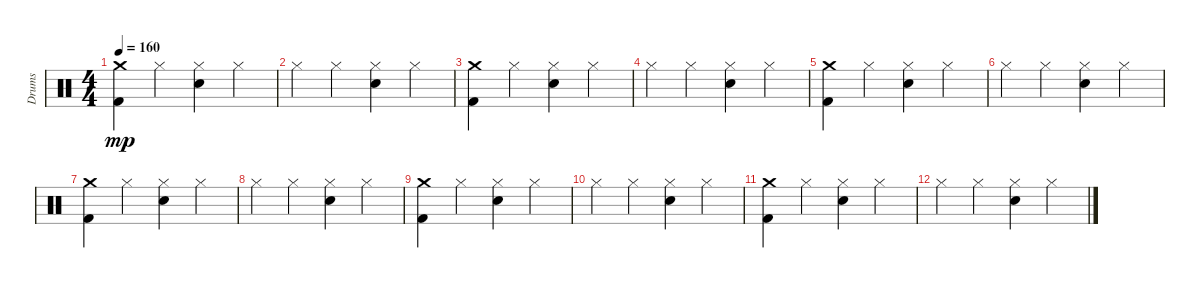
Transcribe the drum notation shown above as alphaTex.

\track ("Drums" "Drums") {instrument percussion}
\staff {score}
\articulation defaults
\ts (4 4)
\tempo 160
\clef neutral
\ks c
("Kick (hit) 2" "Crash medium (hit)").4{dy mp} "Hi-Hat (closed)".4 ("Snare (hit) 2" "Hi-Hat (closed)").4 "Hi-Hat (closed)".4 |
"Hi-Hat (closed)".4 "Hi-Hat (closed)".4 ("Snare (hit) 2" "Hi-Hat (closed)").4 "Hi-Hat (closed)".4 |
("Kick (hit) 2" "Crash medium (hit)").4 "Hi-Hat (closed)".4 ("Snare (hit) 2" "Hi-Hat (closed)").4 "Hi-Hat (closed)".4 |
"Hi-Hat (closed)".4 "Hi-Hat (closed)".4 ("Snare (hit) 2" "Hi-Hat (closed)").4 "Hi-Hat (closed)".4 |
("Kick (hit) 2" "Crash medium (hit)").4 "Hi-Hat (closed)".4 ("Snare (hit) 2" "Hi-Hat (closed)").4 "Hi-Hat (closed)".4 |
"Hi-Hat (closed)".4 "Hi-Hat (closed)".4 ("Snare (hit) 2" "Hi-Hat (closed)").4 "Hi-Hat (closed)".4 |
("Kick (hit) 2" "Crash medium (hit)").4 "Hi-Hat (closed)".4 ("Snare (hit) 2" "Hi-Hat (closed)").4 "Hi-Hat (closed)".4 |
"Hi-Hat (closed)".4 "Hi-Hat (closed)".4 ("Snare (hit) 2" "Hi-Hat (closed)").4 "Hi-Hat (closed)".4 |
("Kick (hit) 2" "Crash medium (hit)").4{volume 12} "Hi-Hat (closed)".4 ("Snare (hit) 2" "Hi-Hat (closed)").4 "Hi-Hat (closed)".4 |
"Hi-Hat (closed)".4{volume 10} "Hi-Hat (closed)".4 ("Snare (hit) 2" "Hi-Hat (closed)").4 "Hi-Hat (closed)".4 |
("Kick (hit) 2" "Crash medium (hit)").4{volume 7} "Hi-Hat (closed)".4 ("Snare (hit) 2" "Hi-Hat (closed)").4 "Hi-Hat (closed)".4 |
"Hi-Hat (closed)".4{volume 2} "Hi-Hat (closed)".4 ("Snare (hit) 2" "Hi-Hat (closed)").4 "Hi-Hat (closed)".4
